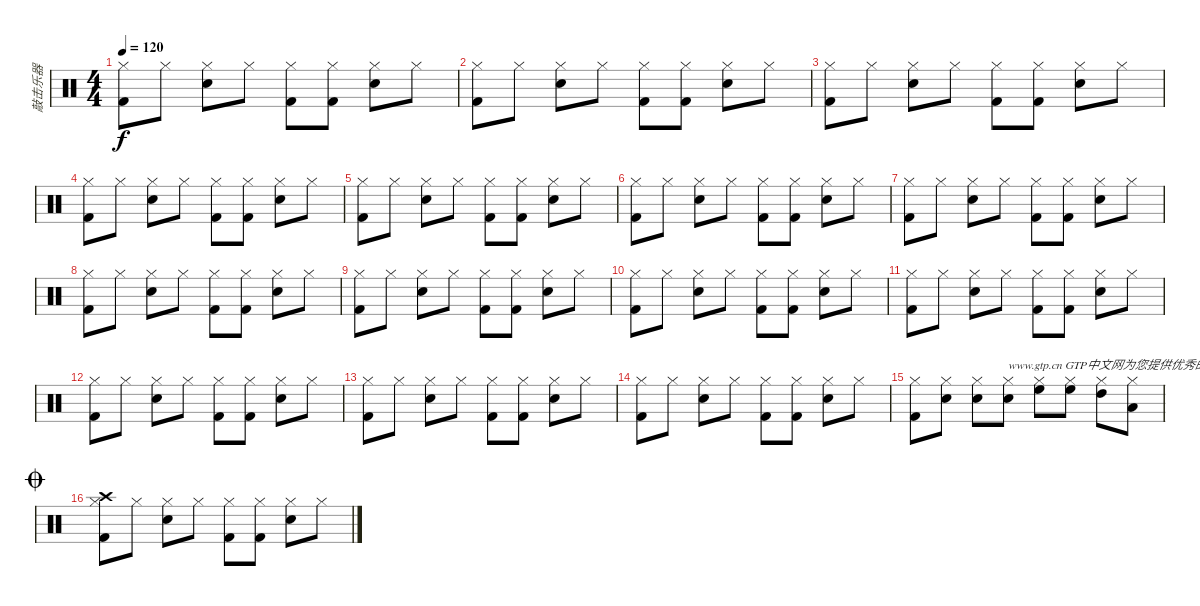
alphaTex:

\track ("敲击乐器" "敲击乐器") {instrument percussion}
\staff {score}
\articulation defaults
\ts (4 4)
\tempo 120
\clef neutral
\ks c
("Kick (hit) 2" "Hi-Hat (closed)").8{dy f} "Hi-Hat (closed)".8 ("Electric Snare (hit)" "Hi-Hat (closed)").8 "Hi-Hat (closed)".8 ("Kick (hit) 2" "Hi-Hat (closed)").8 ("Hi-Hat (closed)" "Kick (hit) 2").8 ("Electric Snare (hit)" "Hi-Hat (closed)").8 "Hi-Hat (closed)".8 |
("Kick (hit) 2" "Hi-Hat (closed)").8 "Hi-Hat (closed)".8 ("Electric Snare (hit)" "Hi-Hat (closed)").8 "Hi-Hat (closed)".8 ("Kick (hit) 2" "Hi-Hat (closed)").8 ("Hi-Hat (closed)" "Kick (hit) 2").8 ("Electric Snare (hit)" "Hi-Hat (closed)").8 "Hi-Hat (closed)".8 |
("Kick (hit) 2" "Hi-Hat (closed)").8 "Hi-Hat (closed)".8 ("Electric Snare (hit)" "Hi-Hat (closed)").8 "Hi-Hat (closed)".8 ("Kick (hit) 2" "Hi-Hat (closed)").8 ("Hi-Hat (closed)" "Kick (hit) 2").8 ("Electric Snare (hit)" "Hi-Hat (closed)").8 "Hi-Hat (closed)".8 |
("Kick (hit) 2" "Hi-Hat (closed)").8 "Hi-Hat (closed)".8 ("Electric Snare (hit)" "Hi-Hat (closed)").8 "Hi-Hat (closed)".8 ("Kick (hit) 2" "Hi-Hat (closed)").8 ("Hi-Hat (closed)" "Kick (hit) 2").8 ("Electric Snare (hit)" "Hi-Hat (closed)").8 "Hi-Hat (closed)".8 |
("Kick (hit) 2" "Hi-Hat (closed)").8 "Hi-Hat (closed)".8 ("Electric Snare (hit)" "Hi-Hat (closed)").8 "Hi-Hat (closed)".8 ("Kick (hit) 2" "Hi-Hat (closed)").8 ("Hi-Hat (closed)" "Kick (hit) 2").8 ("Electric Snare (hit)" "Hi-Hat (closed)").8 "Hi-Hat (closed)".8 |
("Kick (hit) 2" "Hi-Hat (closed)").8 "Hi-Hat (closed)".8 ("Electric Snare (hit)" "Hi-Hat (closed)").8 "Hi-Hat (closed)".8 ("Kick (hit) 2" "Hi-Hat (closed)").8 ("Hi-Hat (closed)" "Kick (hit) 2").8 ("Electric Snare (hit)" "Hi-Hat (closed)").8 "Hi-Hat (closed)".8 |
("Kick (hit) 2" "Hi-Hat (closed)").8 "Hi-Hat (closed)".8 ("Electric Snare (hit)" "Hi-Hat (closed)").8 "Hi-Hat (closed)".8 ("Kick (hit) 2" "Hi-Hat (closed)").8 ("Hi-Hat (closed)" "Kick (hit) 2").8 ("Electric Snare (hit)" "Hi-Hat (closed)").8 "Hi-Hat (closed)".8 |
("Kick (hit) 2" "Hi-Hat (closed)").8 "Hi-Hat (closed)".8 ("Electric Snare (hit)" "Hi-Hat (closed)").8 "Hi-Hat (closed)".8 ("Kick (hit) 2" "Hi-Hat (closed)").8 ("Hi-Hat (closed)" "Kick (hit) 2").8 ("Electric Snare (hit)" "Hi-Hat (closed)").8 "Hi-Hat (closed)".8 |
("Kick (hit) 2" "Hi-Hat (closed)").8 "Hi-Hat (closed)".8 ("Electric Snare (hit)" "Hi-Hat (closed)").8 "Hi-Hat (closed)".8 ("Kick (hit) 2" "Hi-Hat (closed)").8 ("Hi-Hat (closed)" "Kick (hit) 2").8 ("Electric Snare (hit)" "Hi-Hat (closed)").8 "Hi-Hat (closed)".8 |
("Kick (hit) 2" "Hi-Hat (closed)").8 "Hi-Hat (closed)".8 ("Electric Snare (hit)" "Hi-Hat (closed)").8 "Hi-Hat (closed)".8 ("Kick (hit) 2" "Hi-Hat (closed)").8 ("Hi-Hat (closed)" "Kick (hit) 2").8 ("Electric Snare (hit)" "Hi-Hat (closed)").8 "Hi-Hat (closed)".8 |
("Kick (hit) 2" "Hi-Hat (closed)").8 "Hi-Hat (closed)".8 ("Electric Snare (hit)" "Hi-Hat (closed)").8 "Hi-Hat (closed)".8 ("Kick (hit) 2" "Hi-Hat (closed)").8 ("Hi-Hat (closed)" "Kick (hit) 2").8 ("Electric Snare (hit)" "Hi-Hat (closed)").8 "Hi-Hat (closed)".8 |
("Kick (hit) 2" "Hi-Hat (closed)").8 "Hi-Hat (closed)".8 ("Electric Snare (hit)" "Hi-Hat (closed)").8 "Hi-Hat (closed)".8 ("Kick (hit) 2" "Hi-Hat (closed)").8 ("Hi-Hat (closed)" "Kick (hit) 2").8 ("Electric Snare (hit)" "Hi-Hat (closed)").8 "Hi-Hat (closed)".8 |
("Kick (hit) 2" "Hi-Hat (closed)").8 "Hi-Hat (closed)".8 ("Electric Snare (hit)" "Hi-Hat (closed)").8 "Hi-Hat (closed)".8 ("Kick (hit) 2" "Hi-Hat (closed)").8 ("Hi-Hat (closed)" "Kick (hit) 2").8 ("Electric Snare (hit)" "Hi-Hat (closed)").8 "Hi-Hat (closed)".8 |
("Kick (hit) 2" "Hi-Hat (closed)").8 "Hi-Hat (closed)".8 ("Electric Snare (hit)" "Hi-Hat (closed)").8 "Hi-Hat (closed)".8 ("Kick (hit) 2" "Hi-Hat (closed)").8 ("Hi-Hat (closed)" "Kick (hit) 2").8 ("Electric Snare (hit)" "Hi-Hat (closed)").8 "Hi-Hat (closed)".8 |
("Kick (hit) 2" "Hi-Hat (closed)").8 ("Hi-Hat (closed)" "Electric Snare (hit)").8 ("Electric Snare (hit)" "Hi-Hat (closed)").8 ("Hi-Hat (closed)" "Electric Snare (hit)").8{txt "www.gtp.cn GTP中文网为您提供优秀的谱子"} ("High Floor Tom (hit)" "Hi-Hat (closed)").8 ("Hi-Hat (closed)" "High Floor Tom (hit)").8 ("High Tom (hit)" "Hi-Hat (closed)").8 ("Low Tom (hit)" "Hi-Hat (closed)").8 |
\jump coda
("Kick (hit) 2" "Crash high (hit)" "Hi-Hat (closed)").8 "Hi-Hat (closed)".8 ("Electric Snare (hit)" "Hi-Hat (closed)").8 "Hi-Hat (closed)".8 ("Kick (hit) 2" "Hi-Hat (closed)").8 ("Hi-Hat (closed)" "Kick (hit) 2").8 ("Electric Snare (hit)" "Hi-Hat (closed)").8 "Hi-Hat (closed)".8
